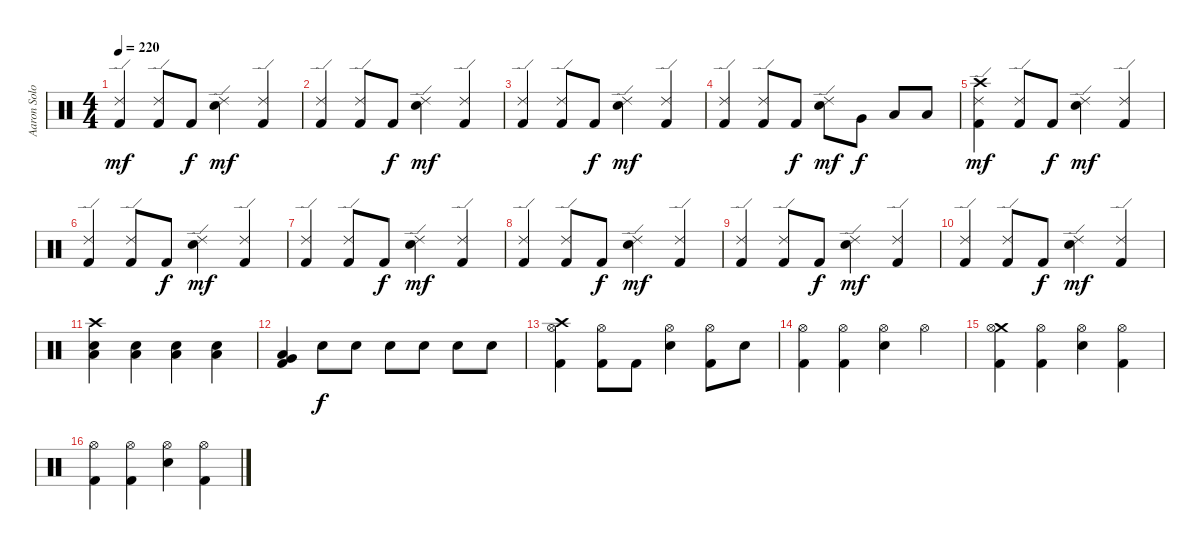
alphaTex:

\track ("Aaron Solowoniuk" "Aaron Solo") {instrument percussion}
\staff {score}
\articulation defaults
\ts (4 4)
\tempo 220
\clef neutral
\ks c
("Ride (edge) 2" "Kick (hit) 2").4{dy mf} ("Ride (edge) 2" "Kick (hit) 2").8 "Kick (hit) 2".8{dy f} ("Ride (edge) 2" "Snare (hit) 2").4{dy mf} ("Ride (edge) 2" "Kick (hit) 2").4 |
("Ride (edge) 2" "Kick (hit) 2").4 ("Ride (edge) 2" "Kick (hit) 2").8 "Kick (hit) 2".8{dy f} ("Ride (edge) 2" "Snare (hit) 2").4{dy mf} ("Ride (edge) 2" "Kick (hit) 2").4 |
("Ride (edge) 2" "Kick (hit) 2").4 ("Ride (edge) 2" "Kick (hit) 2").8 "Kick (hit) 2".8{dy f} ("Ride (edge) 2" "Snare (hit) 2").4{dy mf} ("Ride (edge) 2" "Kick (hit) 2").4 |
("Ride (edge) 2" "Kick (hit) 2").4 ("Ride (edge) 2" "Kick (hit) 2").8 "Kick (hit) 2".8{dy f} ("Ride (edge) 2" "Snare (hit) 2").8{dy mf} "Very Low Tom (hit)".8{dy f} "Low Floor Tom (hit)".8 "Low Floor Tom (hit)".8 |
("Crash high (hit)" "Ride (edge) 2" "Kick (hit) 2").4{dy mf} ("Ride (edge) 2" "Kick (hit) 2").8 "Kick (hit) 2".8{dy f} ("Ride (edge) 2" "Snare (hit) 2").4{dy mf} ("Ride (edge) 2" "Kick (hit) 2").4 |
("Ride (edge) 2" "Kick (hit) 2").4 ("Ride (edge) 2" "Kick (hit) 2").8 "Kick (hit) 2".8{dy f} ("Ride (edge) 2" "Snare (hit) 2").4{dy mf} ("Ride (edge) 2" "Kick (hit) 2").4 |
("Ride (edge) 2" "Kick (hit) 2").4 ("Ride (edge) 2" "Kick (hit) 2").8 "Kick (hit) 2".8{dy f} ("Ride (edge) 2" "Snare (hit) 2").4{dy mf} ("Ride (edge) 2" "Kick (hit) 2").4 |
("Ride (edge) 2" "Kick (hit) 2").4 ("Ride (edge) 2" "Kick (hit) 2").8 "Kick (hit) 2".8{dy f} ("Ride (edge) 2" "Snare (hit) 2").4{dy mf} ("Ride (edge) 2" "Kick (hit) 2").4 |
("Ride (edge) 2" "Kick (hit) 2").4 ("Ride (edge) 2" "Kick (hit) 2").8 "Kick (hit) 2".8{dy f} ("Ride (edge) 2" "Snare (hit) 2").4{dy mf} ("Ride (edge) 2" "Kick (hit) 2").4 |
("Ride (edge) 2" "Kick (hit) 2").4 ("Ride (edge) 2" "Kick (hit) 2").8 "Kick (hit) 2".8{dy f} ("Ride (edge) 2" "Snare (hit) 2").4{dy mf} ("Ride (edge) 2" "Kick (hit) 2").4 |
("Crash high (hit)" "Low Floor Tom (hit)" "Snare (hit) 2").4 ("Low Floor Tom (hit)" "Snare (hit) 2").4 ("Low Floor Tom (hit)" "Snare (hit) 2").4 ("Low Floor Tom (hit)" "Snare (hit) 2").4 |
("Very Low Tom (hit)" "Low Floor Tom (hit)" "Kick (hit) 2").4 "Snare (hit) 2".8{dy f} "Snare (hit) 2".8 "Snare (hit) 2".8 "Snare (hit) 2".8 "Snare (hit) 2".8 "Snare (hit) 2".8 |
("Crash high (hit)" "Hi-Hat (open)" "Kick (hit) 2").4 ("Hi-Hat (open)" "Kick (hit) 2").8 "Kick (hit) 2".8 ("Hi-Hat (open)" "Snare (hit) 2").4 ("Hi-Hat (open)" "Kick (hit) 2").8 "Snare (hit) 2".8 |
("Hi-Hat (open)" "Kick (hit) 2").4 ("Hi-Hat (open)" "Kick (hit) 2").4 ("Hi-Hat (open)" "Snare (hit) 2").4 "Hi-Hat (open)".4 |
("Crash medium (hit)" "Hi-Hat (open)" "Kick (hit) 2").4 ("Hi-Hat (open)" "Kick (hit) 2").4 ("Hi-Hat (open)" "Snare (hit) 2").4 ("Hi-Hat (open)" "Kick (hit) 2").4 |
("Hi-Hat (open)" "Kick (hit) 2").4 ("Hi-Hat (open)" "Kick (hit) 2").4 ("Hi-Hat (open)" "Snare (hit) 2").4 ("Hi-Hat (open)" "Kick (hit) 2").4
